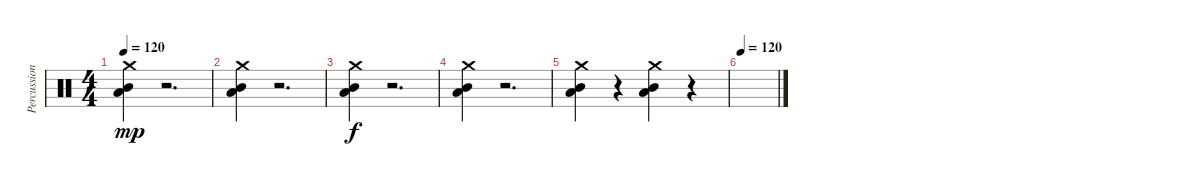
\track ("Percussion 1" "Percussion") {instrument percussion}
\staff {score}
\articulation defaults
\ts (4 4)
\tempo 120
\clef neutral
\ks c
("Mid Tom (hit)" "Low Tom (hit)" "Crash medium (hit)").4{dy mp} r.2{d} |
("Mid Tom (hit)" "Low Tom (hit)" "Crash medium (hit)").4 r.2{d} |
("Mid Tom (hit)" "Low Tom (hit)" "Crash medium (hit)").4{dy f} r.2{d} |
("Mid Tom (hit)" "Low Tom (hit)" "Crash medium (hit)").4 r.2{d} |
("Mid Tom (hit)" "Low Tom (hit)" "Crash medium (hit)").4 r.4 ("Mid Tom (hit)" "Low Tom (hit)" "Crash medium (hit)").4 r.4 |
\tempo 120
